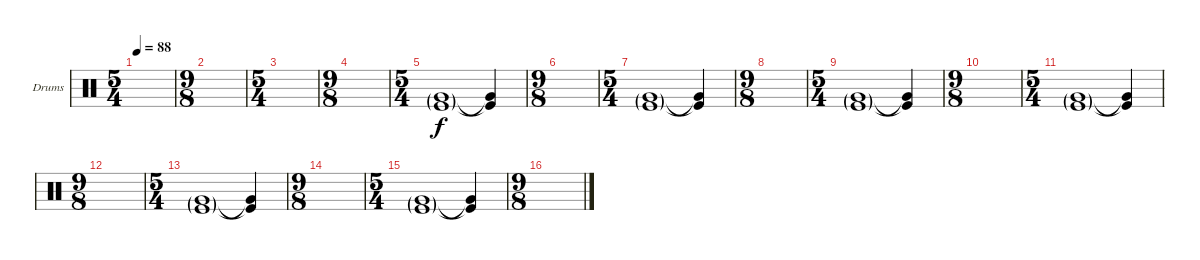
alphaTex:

\defaultSystemsLayout 4
\bracketExtendMode groupsimilarinstruments
\firstSystemTrackNameOrientation horizontal
\otherSystemsTrackNameOrientation horizontal
\track ("Drumkit" "Drums") {instrument percussion}
\staff {score}
\articulation defaults
\ts (5 4)
\tempo 88
\clef neutral
\ks c
|
\ts (9 8)
|
\ts (5 4)
|
\ts (9 8)
|
\ts (5 4)
("Kick (hit)"{g} "Very Low Tom (hit)"{g}).1 ("Very Low Tom (hit)"{t} "Kick (hit)"{t}).4 |
\ts (9 8)
|
\ts (5 4)
("Kick (hit)"{g} "Very Low Tom (hit)"{g}).1 ("Very Low Tom (hit)"{t} "Kick (hit)"{t}).4 |
\ts (9 8)
|
\ts (5 4)
("Kick (hit)"{g} "Very Low Tom (hit)"{g}).1 ("Very Low Tom (hit)"{t} "Kick (hit)"{t}).4 |
\ts (9 8)
|
\ts (5 4)
("Kick (hit)"{g} "Very Low Tom (hit)"{g}).1 ("Very Low Tom (hit)"{t} "Kick (hit)"{t}).4 |
\ts (9 8)
|
\ts (5 4)
("Kick (hit)"{g} "Very Low Tom (hit)"{g}).1 ("Very Low Tom (hit)"{t} "Kick (hit)"{t}).4 |
\ts (9 8)
|
\ts (5 4)
("Kick (hit)"{g} "Very Low Tom (hit)"{g}).1 ("Very Low Tom (hit)"{t} "Kick (hit)"{t}).4 |
\ts (9 8)
